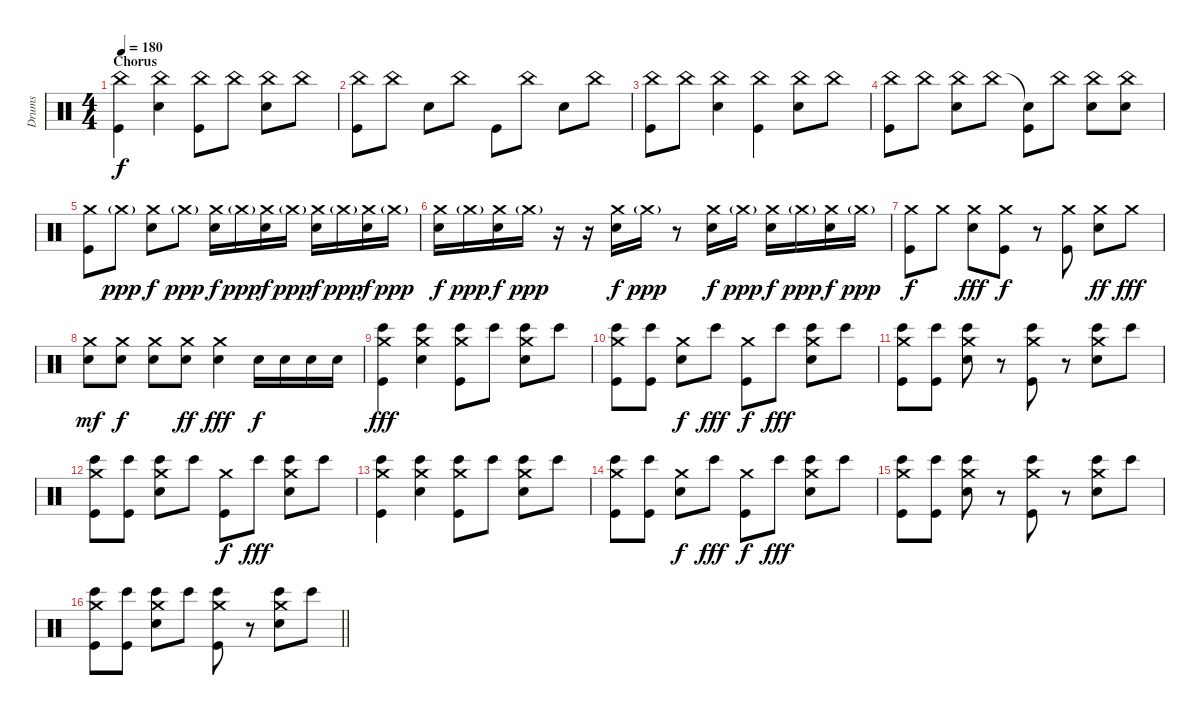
\track ("Drums" "Drums") {instrument percussion}
\staff {score}
\articulation defaults
\ts (4 4)
\section ("" "Chorus")
\tempo 180
\clef neutral
\ks c
("China (hit)" "Kick (hit)").4{dy f} ("China (hit)" "Electric Snare (hit)").4 ("China (hit)" "Kick (hit)").8 "China (hit)".8 ("China (hit)" "Electric Snare (hit)").8 "China (hit)".8 |
("China (hit)" "Kick (hit)").8 "China (hit)".8 "Electric Snare (hit)".8 "China (hit)".8 "Kick (hit)".8 "China (hit)".8 "Electric Snare (hit)".8 "China (hit)".8 |
("China (hit)" "Kick (hit)").8 "China (hit)".8 ("China (hit)" "Electric Snare (hit)").4 ("China (hit)" "Kick (hit)").4 ("China (hit)" "Electric Snare (hit)").8 "China (hit)".8 |
("China (hit)" "Kick (hit)").8 "China (hit)".8 ("China (hit)" "Electric Snare (hit)").8 "China (hit)".8 ("Snare (hit)"{t} "Kick (hit)").8 "China (hit)".8 ("China (hit)" "Electric Snare (hit)").8 ("China (hit)" "Electric Snare (hit)").8 |
("Crash medium (hit)" "Kick (hit)").8 "Crash medium (hit)"{g}.8{dy ppp} ("Crash medium (hit)" "Electric Snare (hit)").8{dy f} "Crash medium (hit)"{g}.8{dy ppp} ("Crash medium (hit)" "Electric Snare (hit)").16{dy f} "Crash medium (hit)"{g}.16{dy ppp} ("Crash medium (hit)" "Electric Snare (hit)").16{dy f} "Crash medium (hit)"{g}.16{dy ppp} ("Crash medium (hit)" "Electric Snare (hit)").16{dy f} "Crash medium (hit)"{g}.16{dy ppp} ("Crash medium (hit)" "Electric Snare (hit)").16{dy f} "Crash medium (hit)"{g}.16{dy ppp} |
("Crash medium (hit)" "Electric Snare (hit)").16{dy f} "Crash medium (hit)"{g}.16{dy ppp} ("Crash medium (hit)" "Electric Snare (hit)").16{dy f} "Crash medium (hit)"{g}.16{dy ppp} r.16 r.16 ("Crash medium (hit)" "Electric Snare (hit)").16{dy f} "Crash medium (hit)"{g}.16{dy ppp} r.8 ("Crash medium (hit)" "Electric Snare (hit)").16{dy f} "Crash medium (hit)"{g}.16{dy ppp} ("Crash medium (hit)" "Electric Snare (hit)").16{dy f} "Crash medium (hit)"{g}.16{dy ppp} ("Crash medium (hit)" "Electric Snare (hit)").16{dy f} "Crash medium (hit)"{g}.16{dy ppp} |
("Crash medium (hit)" "Kick (hit)").8{dy f} "Crash medium (hit)".8 ("Crash medium (hit)" "Electric Snare (hit)").8{dy fff} ("Crash medium (hit)" "Kick (hit)").8{dy f} r.8 ("Crash medium (hit)" "Kick (hit)").8 ("Crash medium (hit)" "Electric Snare (hit)").8{dy ff} "Crash medium (hit)".8{dy fff} |
("Crash medium (hit)" "Electric Snare (hit)").8{dy mf} ("Crash medium (hit)" "Electric Snare (hit)").8{dy f} ("Crash medium (hit)" "Electric Snare (hit)").8 ("Crash medium (hit)" "Electric Snare (hit)").8{dy ff} ("Crash medium (hit)" "Electric Snare (hit)").4{dy fff} "Electric Snare (hit)".16{dy f} "Electric Snare (hit)".16 "Electric Snare (hit)".16 "Electric Snare (hit)".16 |
("Crash medium (hit)" "Bongo High (hit)" "Kick (hit)").4{dy fff} ("Crash medium (hit)" "Electric Snare (hit)" "Bongo High (hit)").4 ("Crash medium (hit)" "Bongo High (hit)" "Kick (hit)").8 "Bongo High (hit)".8 ("Crash medium (hit)" "Electric Snare (hit)" "Bongo High (hit)").8 "Bongo High (hit)".8 |
("Crash medium (hit)" "Bongo High (hit)" "Kick (hit)").8 ("Bongo High (hit)" "Kick (hit)").8 ("Crash medium (hit)" "Electric Snare (hit)").8{dy f} "Bongo High (hit)".8{dy fff} ("Crash medium (hit)" "Kick (hit)").8{dy f} "Bongo High (hit)".8{dy fff} ("Crash medium (hit)" "Electric Snare (hit)" "Bongo High (hit)").8 "Bongo High (hit)".8 |
("Crash medium (hit)" "Bongo High (hit)" "Kick (hit)").8 ("Bongo High (hit)" "Kick (hit)").8 ("Crash medium (hit)" "Electric Snare (hit)" "Bongo High (hit)").8 r.8 ("Crash medium (hit)" "Bongo High (hit)" "Kick (hit)").8 r.8 ("Crash medium (hit)" "Electric Snare (hit)" "Bongo High (hit)").8 "Bongo High (hit)".8 |
("Crash medium (hit)" "Bongo High (hit)" "Kick (hit)").8 ("Bongo High (hit)" "Kick (hit)").8 ("Crash medium (hit)" "Electric Snare (hit)" "Bongo High (hit)").8 "Bongo High (hit)".8 ("Crash medium (hit)" "Kick (hit)").8{dy f} "Bongo High (hit)".8{dy fff} ("Crash medium (hit)" "Electric Snare (hit)" "Bongo High (hit)").8 "Bongo High (hit)".8 |
("Crash medium (hit)" "Bongo High (hit)" "Kick (hit)").4 ("Crash medium (hit)" "Electric Snare (hit)" "Bongo High (hit)").4 ("Crash medium (hit)" "Bongo High (hit)" "Kick (hit)").8 "Bongo High (hit)".8 ("Crash medium (hit)" "Electric Snare (hit)" "Bongo High (hit)").8 "Bongo High (hit)".8 |
("Crash medium (hit)" "Bongo High (hit)" "Kick (hit)").8 ("Bongo High (hit)" "Kick (hit)").8 ("Crash medium (hit)" "Electric Snare (hit)").8{dy f} "Bongo High (hit)".8{dy fff} ("Crash medium (hit)" "Kick (hit)").8{dy f} "Bongo High (hit)".8{dy fff} ("Crash medium (hit)" "Electric Snare (hit)" "Bongo High (hit)").8 "Bongo High (hit)".8 |
("Crash medium (hit)" "Bongo High (hit)" "Kick (hit)").8 ("Bongo High (hit)" "Kick (hit)").8 ("Crash medium (hit)" "Electric Snare (hit)" "Bongo High (hit)").8 r.8 ("Crash medium (hit)" "Bongo High (hit)" "Kick (hit)").8 r.8 ("Crash medium (hit)" "Electric Snare (hit)" "Bongo High (hit)").8 "Bongo High (hit)".8 |
\barLineRight lightlight
("Crash medium (hit)" "Bongo High (hit)" "Kick (hit)").8 ("Bongo High (hit)" "Kick (hit)").8 ("Crash medium (hit)" "Electric Snare (hit)" "Bongo High (hit)").8 "Bongo High (hit)".8 ("Crash medium (hit)" "Bongo High (hit)" "Kick (hit)").8 r.8 ("Crash medium (hit)" "Electric Snare (hit)" "Bongo High (hit)").8 "Bongo High (hit)".8
